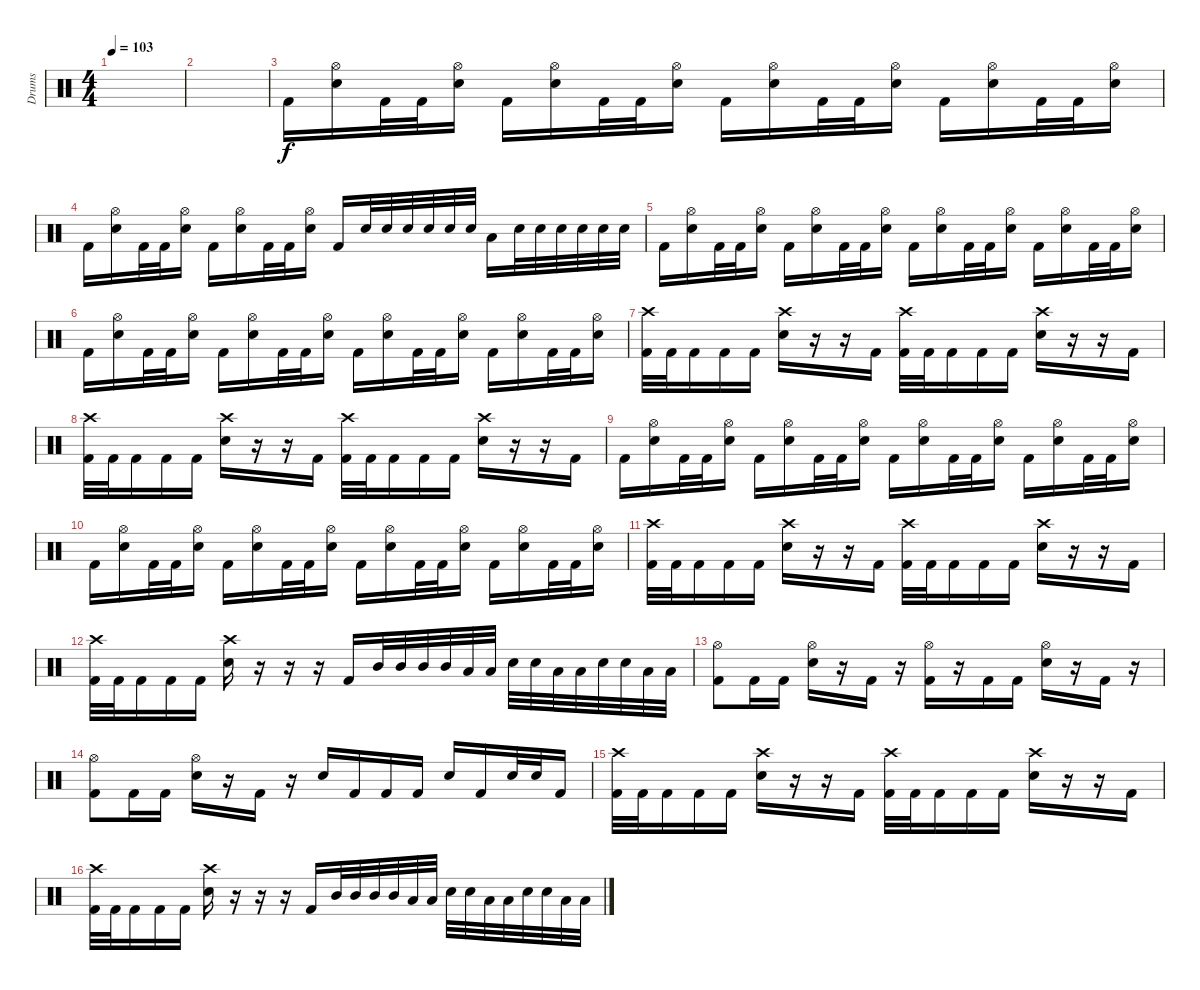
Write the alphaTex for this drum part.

\track ("Drums" "Drums") {instrument percussion}
\staff {score}
\articulation defaults
\ts (4 4)
\tempo 103
\clef neutral
\ks c
|
|
"Kick (hit) 2".16 ("Hi-Hat (open)" "Electric Snare (hit)").16 "Kick (hit) 2".32 "Kick (hit) 2".32 ("Hi-Hat (open)" "Electric Snare (hit)").16 "Kick (hit) 2".16 ("Hi-Hat (open)" "Electric Snare (hit)").16 "Kick (hit) 2".32 "Kick (hit) 2".32 ("Hi-Hat (open)" "Electric Snare (hit)").16 "Kick (hit) 2".16 ("Hi-Hat (open)" "Electric Snare (hit)").16 "Kick (hit) 2".32 "Kick (hit) 2".32 ("Hi-Hat (open)" "Electric Snare (hit)").16 "Kick (hit) 2".16 ("Hi-Hat (open)" "Electric Snare (hit)").16 "Kick (hit) 2".32 "Kick (hit) 2".32 ("Hi-Hat (open)" "Electric Snare (hit)").16 |
"Kick (hit) 2".16 ("Hi-Hat (open)" "Electric Snare (hit)").16 "Kick (hit) 2".32 "Kick (hit) 2".32 ("Hi-Hat (open)" "Electric Snare (hit)").16 "Kick (hit) 2".16 ("Hi-Hat (open)" "Electric Snare (hit)").16 "Kick (hit) 2".32 "Kick (hit) 2".32 ("Hi-Hat (open)" "Electric Snare (hit)").16 "Kick (hit) 2".16 "Electric Snare (hit)".32 "Electric Snare (hit)".32 "Electric Snare (hit)".32 "Electric Snare (hit)".32 "Electric Snare (hit)".32 "Electric Snare (hit)".32 "Low Tom (hit)".16 "Electric Snare (hit)".32 "Electric Snare (hit)".32 "Electric Snare (hit)".32 "Electric Snare (hit)".32 "Electric Snare (hit)".32 "Electric Snare (hit)".32 |
"Kick (hit) 2".16 ("Hi-Hat (open)" "Electric Snare (hit)").16 "Kick (hit) 2".32 "Kick (hit) 2".32 ("Hi-Hat (open)" "Electric Snare (hit)").16 "Kick (hit) 2".16 ("Hi-Hat (open)" "Electric Snare (hit)").16 "Kick (hit) 2".32 "Kick (hit) 2".32 ("Hi-Hat (open)" "Electric Snare (hit)").16 "Kick (hit) 2".16 ("Hi-Hat (open)" "Electric Snare (hit)").16 "Kick (hit) 2".32 "Kick (hit) 2".32 ("Hi-Hat (open)" "Electric Snare (hit)").16 "Kick (hit) 2".16 ("Hi-Hat (open)" "Electric Snare (hit)").16 "Kick (hit) 2".32 "Kick (hit) 2".32 ("Hi-Hat (open)" "Electric Snare (hit)").16 |
"Kick (hit) 2".16 ("Hi-Hat (open)" "Electric Snare (hit)").16 "Kick (hit) 2".32 "Kick (hit) 2".32 ("Hi-Hat (open)" "Electric Snare (hit)").16 "Kick (hit) 2".16 ("Hi-Hat (open)" "Electric Snare (hit)").16 "Kick (hit) 2".32 "Kick (hit) 2".32 ("Hi-Hat (open)" "Electric Snare (hit)").16 "Kick (hit) 2".16 ("Hi-Hat (open)" "Electric Snare (hit)").16 "Kick (hit) 2".32 "Kick (hit) 2".32 ("Hi-Hat (open)" "Electric Snare (hit)").16 "Kick (hit) 2".16 ("Hi-Hat (open)" "Electric Snare (hit)").16 "Kick (hit) 2".32 "Kick (hit) 2".32 ("Hi-Hat (open)" "Electric Snare (hit)").16 |
("Crash high (hit)" "Kick (hit) 2").32 "Kick (hit) 2".32 "Kick (hit) 2".16 "Kick (hit) 2".16 "Kick (hit) 2".16 ("Crash high (hit)" "Electric Snare (hit)").16 r.16 r.16 "Kick (hit) 2".16 ("Crash high (hit)" "Kick (hit) 2").32 "Kick (hit) 2".32 "Kick (hit) 2".16 "Kick (hit) 2".16 "Kick (hit) 2".16 ("Crash high (hit)" "Electric Snare (hit)").16 r.16 r.16 "Kick (hit) 2".16 |
("Crash high (hit)" "Kick (hit) 2").32 "Kick (hit) 2".32 "Kick (hit) 2".16 "Kick (hit) 2".16 "Kick (hit) 2".16 ("Crash high (hit)" "Electric Snare (hit)").16 r.16 r.16 "Kick (hit) 2".16 ("Crash high (hit)" "Kick (hit) 2").32 "Kick (hit) 2".32 "Kick (hit) 2".16 "Kick (hit) 2".16 "Kick (hit) 2".16 ("Crash high (hit)" "Electric Snare (hit)").16 r.16 r.16 "Kick (hit) 2".16 |
"Kick (hit) 2".16 ("Hi-Hat (open)" "Electric Snare (hit)").16 "Kick (hit) 2".32 "Kick (hit) 2".32 ("Hi-Hat (open)" "Electric Snare (hit)").16 "Kick (hit) 2".16 ("Hi-Hat (open)" "Electric Snare (hit)").16 "Kick (hit) 2".32 "Kick (hit) 2".32 ("Hi-Hat (open)" "Electric Snare (hit)").16 "Kick (hit) 2".16 ("Hi-Hat (open)" "Electric Snare (hit)").16 "Kick (hit) 2".32 "Kick (hit) 2".32 ("Hi-Hat (open)" "Electric Snare (hit)").16 "Kick (hit) 2".16 ("Hi-Hat (open)" "Electric Snare (hit)").16 "Kick (hit) 2".32 "Kick (hit) 2".32 ("Hi-Hat (open)" "Electric Snare (hit)").16 |
"Kick (hit) 2".16 ("Hi-Hat (open)" "Electric Snare (hit)").16 "Kick (hit) 2".32 "Kick (hit) 2".32 ("Hi-Hat (open)" "Electric Snare (hit)").16 "Kick (hit) 2".16 ("Hi-Hat (open)" "Electric Snare (hit)").16 "Kick (hit) 2".32 "Kick (hit) 2".32 ("Hi-Hat (open)" "Electric Snare (hit)").16 "Kick (hit) 2".16 ("Hi-Hat (open)" "Electric Snare (hit)").16 "Kick (hit) 2".32 "Kick (hit) 2".32 ("Hi-Hat (open)" "Electric Snare (hit)").16 "Kick (hit) 2".16 ("Hi-Hat (open)" "Electric Snare (hit)").16 "Kick (hit) 2".32 "Kick (hit) 2".32 ("Hi-Hat (open)" "Electric Snare (hit)").16 |
("Crash high (hit)" "Kick (hit) 2").32 "Kick (hit) 2".32 "Kick (hit) 2".16 "Kick (hit) 2".16 "Kick (hit) 2".16 ("Crash high (hit)" "Electric Snare (hit)").16 r.16 r.16 "Kick (hit) 2".16 ("Crash high (hit)" "Kick (hit) 2").32 "Kick (hit) 2".32 "Kick (hit) 2".16 "Kick (hit) 2".16 "Kick (hit) 2".16 ("Crash high (hit)" "Electric Snare (hit)").16 r.16 r.16 "Kick (hit) 2".16 |
("Crash high (hit)" "Kick (hit) 2").32 "Kick (hit) 2".32 "Kick (hit) 2".16 "Kick (hit) 2".16 "Kick (hit) 2".16 ("Crash high (hit)" "Electric Snare (hit)").16 r.16 r.16 r.16 "Kick (hit) 2".16 "Mid Tom (hit)".32 "Mid Tom (hit)".32 "Mid Tom (hit)".32 "Mid Tom (hit)".32 "Low Tom (hit)".32 "Low Tom (hit)".32 "Electric Snare (hit)".32 "Electric Snare (hit)".32 "Low Tom (hit)".32 "Low Tom (hit)".32 "Electric Snare (hit)".32 "Electric Snare (hit)".32 "Low Tom (hit)".32 "Low Tom (hit)".32 |
("Hi-Hat (open)" "Kick (hit) 2").8 "Kick (hit) 2".16 "Kick (hit) 2".16 ("Hi-Hat (open)" "Electric Snare (hit)").16 r.16 "Kick (hit) 2".16 r.16 ("Hi-Hat (open)" "Kick (hit) 2").16 r.16 "Kick (hit) 2".16 "Kick (hit) 2".16 ("Hi-Hat (open)" "Electric Snare (hit)").16 r.16 "Kick (hit) 2".16 r.16 |
("Hi-Hat (open)" "Kick (hit) 2").8 "Kick (hit) 2".16 "Kick (hit) 2".16 ("Hi-Hat (open)" "Electric Snare (hit)").16 r.16 "Kick (hit) 2".16 r.16 "Electric Snare (hit)".16 "Kick (hit) 2".16 "Kick (hit) 2".16 "Kick (hit) 2".16 "Electric Snare (hit)".16 "Kick (hit) 2".16 "Electric Snare (hit)".32 "Electric Snare (hit)".32 "Kick (hit) 2".16 |
("Crash high (hit)" "Kick (hit) 2").32 "Kick (hit) 2".32 "Kick (hit) 2".16 "Kick (hit) 2".16 "Kick (hit) 2".16 ("Crash high (hit)" "Electric Snare (hit)").16 r.16 r.16 "Kick (hit) 2".16 ("Crash high (hit)" "Kick (hit) 2").32 "Kick (hit) 2".32 "Kick (hit) 2".16 "Kick (hit) 2".16 "Kick (hit) 2".16 ("Crash high (hit)" "Electric Snare (hit)").16 r.16 r.16 "Kick (hit) 2".16 |
("Crash high (hit)" "Kick (hit) 2").32 "Kick (hit) 2".32 "Kick (hit) 2".16 "Kick (hit) 2".16 "Kick (hit) 2".16 ("Crash high (hit)" "Electric Snare (hit)").16 r.16 r.16 r.16 "Kick (hit) 2".16 "Mid Tom (hit)".32 "Mid Tom (hit)".32 "Mid Tom (hit)".32 "Mid Tom (hit)".32 "Low Tom (hit)".32 "Low Tom (hit)".32 "Electric Snare (hit)".32 "Electric Snare (hit)".32 "Low Tom (hit)".32 "Low Tom (hit)".32 "Electric Snare (hit)".32 "Electric Snare (hit)".32 "Low Tom (hit)".32 "Low Tom (hit)".32
